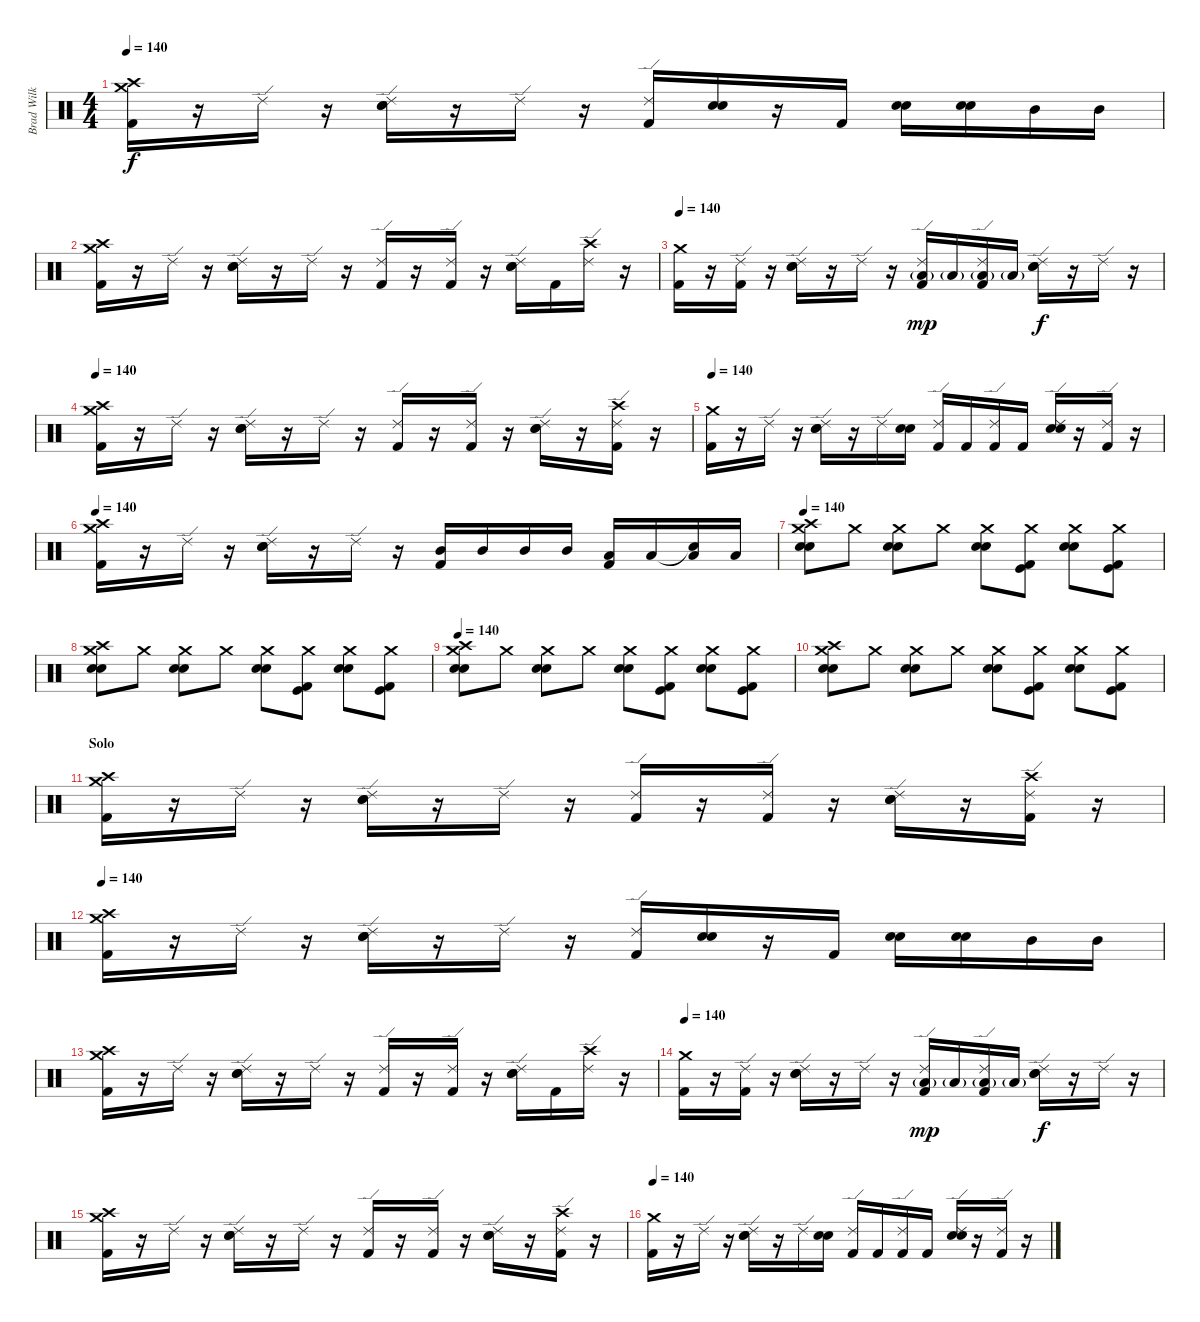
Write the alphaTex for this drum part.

\track ("Brad Wilk" "Brad Wilk") {instrument percussion}
\staff {score}
\articulation defaults
\ts (4 4)
\tempo 140
\clef neutral
\ks c
("Crash medium (hit)" "Crash high (hit)" "Kick (hit) 2").16{dy f} r.16 "Ride (edge) 2".16 r.16 ("Ride (edge) 2" "Electric Snare (hit)" "Snare (hit) 2").16 r.16 "Ride (edge) 2".16 r.16 ("Ride (edge) 2" "Kick (hit) 2").16 ("Electric Snare (hit)" "Snare (hit) 2").16 r.16 "Kick (hit) 2".16 ("Electric Snare (hit)" "Snare (hit) 2").16 ("Electric Snare (hit)" "Electric Snare (hit)").16 "Mid Tom (hit)".16 "Mid Tom (hit)".16 |
("Crash medium (hit)" "Crash high (hit)" "Kick (hit) 2").16 r.16 "Ride (edge) 2".16 r.16 ("Ride (edge) 2" "Electric Snare (hit)" "Snare (hit) 2").16 r.16 "Ride (edge) 2".16 r.16 ("Ride (edge) 2" "Kick (hit) 2").16 r.16 ("Ride (edge) 2" "Kick (hit) 2").16 r.16 ("Ride (edge) 2" "Electric Snare (hit)" "Snare (hit) 2").16 "Kick (hit) 2".16 ("Ride (edge) 2" "Crash high (hit)").16 r.16 |
\tempo 140
("Crash medium (hit)" "Kick (hit) 2").16 r.16 ("Ride (edge) 2" "Kick (hit) 2").16 r.16 ("Ride (edge) 2" "Electric Snare (hit)" "Snare (hit) 2").16 r.16 "Ride (edge) 2".16 r.16 ("Ride (edge) 2" "Low Tom (hit)"{g} "Kick (hit) 2").16{dy mp} "Low Tom (hit)"{g}.16 ("Ride (edge) 2" "Low Tom (hit)"{g} "Kick (hit) 2").16 "Low Tom (hit)"{g}.16 ("Ride (edge) 2" "Electric Snare (hit)" "Snare (hit) 2").16{dy f} r.16 "Ride (edge) 2".16 r.16 |
\tempo 140
("Crash medium (hit)" "Crash high (hit)" "Kick (hit) 2").16 r.16 "Ride (edge) 2".16 r.16 ("Ride (edge) 2" "Electric Snare (hit)" "Snare (hit) 2").16 r.16 "Ride (edge) 2".16 r.16 ("Ride (edge) 2" "Kick (hit) 2").16 r.16 ("Ride (edge) 2" "Kick (hit) 2").16 r.16 ("Ride (edge) 2" "Electric Snare (hit)" "Snare (hit) 2").16 r.16 ("Ride (edge) 2" "Crash high (hit)" "Kick (hit) 2").16 r.16 |
\tempo 130
\tempo 140
("Crash medium (hit)" "Kick (hit) 2").16 r.16 "Ride (edge) 2".16 r.16 ("Ride (edge) 2" "Electric Snare (hit)" "Snare (hit) 2").16 r.16 "Ride (edge) 2".16 ("Electric Snare (hit)" "Snare (hit) 2").16 ("Ride (edge) 2" "Kick (hit) 2").16 "Kick (hit) 2".16 ("Ride (edge) 2" "Kick (hit) 2").16 "Kick (hit) 2".16 ("Ride (edge) 2" "Electric Snare (hit)" "Snare (hit) 2").16 r.16 ("Ride (edge) 2" "Kick (hit) 2").16 r.16 |
\tempo 140
("Crash medium (hit)" "Crash high (hit)" "Kick (hit) 2").16 r.16 "Ride (edge) 2".16 r.16 ("Ride (edge) 2" "Electric Snare (hit)" "Snare (hit) 2").16 r.16 "Ride (edge) 2".16 r.16 ("Mid Tom (hit)" "Kick (hit) 2").16 "Mid Tom (hit)".16 "Mid Tom (hit)".16 "Mid Tom (hit)".16 ("Low Tom (hit)" "Kick (hit) 2").16 "Low Tom (hit)".16 ("Snare (hit)"{t} "Low Tom (hit)").16 "Low Tom (hit)".16 |
\tempo 140
("Crash medium (hit)" "Crash high (hit)" "Snare (hit) 2" "Electric Snare (hit)").8 "Crash medium (hit)".8 ("Crash medium (hit)" "Electric Snare (hit)" "Snare (hit) 2").8 "Crash medium (hit)".8 ("Crash medium (hit)" "Electric Snare (hit)" "Snare (hit) 2").8 ("Crash medium (hit)" "Kick (hit)" "Kick (hit) 2").8 ("Crash medium (hit)" "Electric Snare (hit)" "Snare (hit) 2").8 ("Crash medium (hit)" "Kick (hit)" "Kick (hit) 2").8 |
("Crash medium (hit)" "Crash high (hit)" "Snare (hit) 2" "Electric Snare (hit)").8 "Crash medium (hit)".8 ("Crash medium (hit)" "Electric Snare (hit)" "Snare (hit) 2").8 "Crash medium (hit)".8 ("Crash medium (hit)" "Electric Snare (hit)" "Snare (hit) 2").8 ("Crash medium (hit)" "Kick (hit)" "Kick (hit) 2").8 ("Crash medium (hit)" "Electric Snare (hit)" "Snare (hit) 2").8 ("Crash medium (hit)" "Kick (hit)" "Kick (hit) 2").8 |
\tempo 140
("Crash medium (hit)" "Crash high (hit)" "Snare (hit) 2" "Electric Snare (hit)").8 "Crash medium (hit)".8 ("Crash medium (hit)" "Electric Snare (hit)" "Snare (hit) 2").8 "Crash medium (hit)".8 ("Crash medium (hit)" "Electric Snare (hit)" "Snare (hit) 2").8 ("Crash medium (hit)" "Kick (hit)" "Kick (hit) 2").8 ("Crash medium (hit)" "Electric Snare (hit)" "Snare (hit) 2").8 ("Crash medium (hit)" "Kick (hit)" "Kick (hit) 2").8 |
("Crash medium (hit)" "Crash high (hit)" "Snare (hit) 2" "Electric Snare (hit)").8 "Crash medium (hit)".8 ("Crash medium (hit)" "Electric Snare (hit)" "Snare (hit) 2").8 "Crash medium (hit)".8 ("Crash medium (hit)" "Electric Snare (hit)" "Snare (hit) 2").8 ("Crash medium (hit)" "Kick (hit)" "Kick (hit) 2").8 ("Crash medium (hit)" "Electric Snare (hit)" "Snare (hit) 2").8 ("Crash medium (hit)" "Kick (hit)" "Kick (hit) 2").8 |
\section ("" "Solo")
("Crash medium (hit)" "Crash high (hit)" "Kick (hit) 2").16 r.16 "Ride (edge) 2".16 r.16 ("Ride (edge) 2" "Electric Snare (hit)" "Snare (hit) 2").16 r.16 "Ride (edge) 2".16 r.16 ("Ride (edge) 2" "Kick (hit) 2").16 r.16 ("Ride (edge) 2" "Kick (hit) 2").16 r.16 ("Ride (edge) 2" "Electric Snare (hit)" "Snare (hit) 2").16 r.16 ("Ride (edge) 2" "Crash high (hit)" "Kick (hit) 2").16 r.16 |
\tempo 140
("Crash medium (hit)" "Crash high (hit)" "Kick (hit) 2").16 r.16 "Ride (edge) 2".16 r.16 ("Ride (edge) 2" "Electric Snare (hit)" "Snare (hit) 2").16 r.16 "Ride (edge) 2".16 r.16 ("Ride (edge) 2" "Kick (hit) 2").16 ("Electric Snare (hit)" "Snare (hit) 2").16 r.16 "Kick (hit) 2".16 ("Electric Snare (hit)" "Snare (hit) 2").16 ("Electric Snare (hit)" "Electric Snare (hit)").16 "Mid Tom (hit)".16 "Mid Tom (hit)".16 |
("Crash medium (hit)" "Crash high (hit)" "Kick (hit) 2").16 r.16 "Ride (edge) 2".16 r.16 ("Ride (edge) 2" "Electric Snare (hit)" "Snare (hit) 2").16 r.16 "Ride (edge) 2".16 r.16 ("Ride (edge) 2" "Kick (hit) 2").16 r.16 ("Ride (edge) 2" "Kick (hit) 2").16 r.16 ("Ride (edge) 2" "Electric Snare (hit)" "Snare (hit) 2").16 "Kick (hit) 2".16 ("Ride (edge) 2" "Crash high (hit)").16 r.16 |
\tempo 140
("Crash medium (hit)" "Kick (hit) 2").16 r.16 ("Ride (edge) 2" "Kick (hit) 2").16 r.16 ("Ride (edge) 2" "Electric Snare (hit)" "Snare (hit) 2").16 r.16 "Ride (edge) 2".16 r.16 ("Ride (edge) 2" "Low Tom (hit)"{g} "Kick (hit) 2").16{dy mp} "Low Tom (hit)"{g}.16 ("Ride (edge) 2" "Low Tom (hit)"{g} "Kick (hit) 2").16 "Low Tom (hit)"{g}.16 ("Ride (edge) 2" "Electric Snare (hit)" "Snare (hit) 2").16{dy f} r.16 "Ride (edge) 2".16 r.16 |
("Crash medium (hit)" "Crash high (hit)" "Kick (hit) 2").16 r.16 "Ride (edge) 2".16 r.16 ("Ride (edge) 2" "Electric Snare (hit)" "Snare (hit) 2").16 r.16 "Ride (edge) 2".16 r.16 ("Ride (edge) 2" "Kick (hit) 2").16 r.16 ("Ride (edge) 2" "Kick (hit) 2").16 r.16 ("Ride (edge) 2" "Electric Snare (hit)" "Snare (hit) 2").16 r.16 ("Ride (edge) 2" "Crash high (hit)" "Kick (hit) 2").16 r.16 |
\tempo 140
("Crash medium (hit)" "Kick (hit) 2").16 r.16 "Ride (edge) 2".16 r.16 ("Ride (edge) 2" "Electric Snare (hit)" "Snare (hit) 2").16 r.16 "Ride (edge) 2".16 ("Electric Snare (hit)" "Snare (hit) 2").16 ("Ride (edge) 2" "Kick (hit) 2").16 "Kick (hit) 2".16 ("Ride (edge) 2" "Kick (hit) 2").16 "Kick (hit) 2".16 ("Ride (edge) 2" "Electric Snare (hit)" "Snare (hit) 2").16 r.16 ("Ride (edge) 2" "Kick (hit) 2").16 r.16
